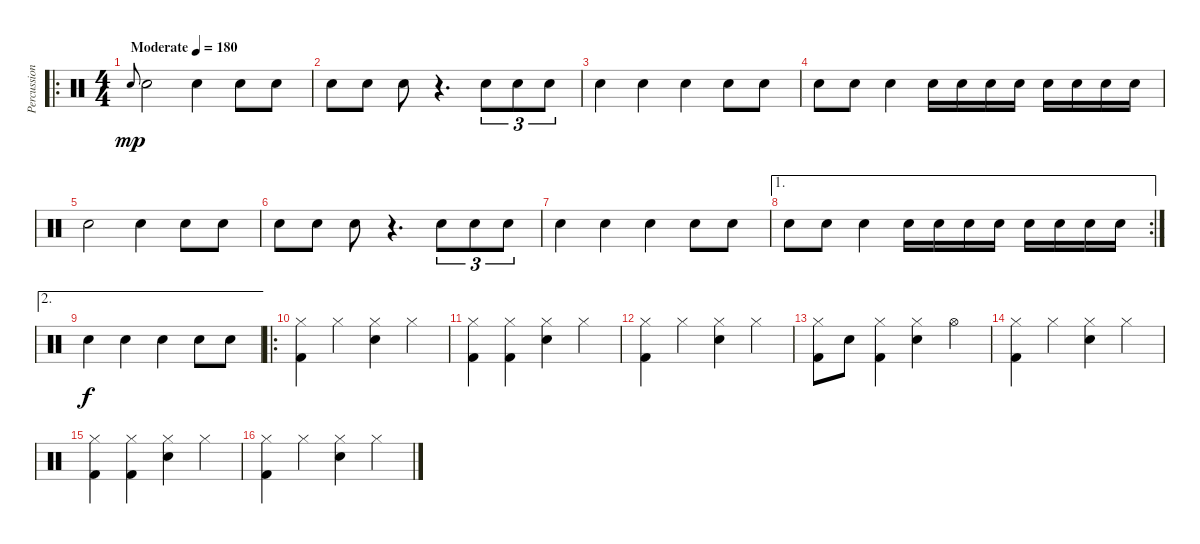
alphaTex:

\track ("Percussion" "Percussion") {instrument percussion}
\staff {score}
\articulation defaults
\ro
\ts (4 4)
\tempo (180 "Moderate")
\clef neutral
\ks c "Snare (hit) 2".8{gr onbeat dy mp} "Snare (hit) 2".2 "Snare (hit) 2".4 "Snare (hit) 2".8 "Snare (hit) 2".8
|
"Snare (hit) 2".8 "Snare (hit) 2".8 "Snare (hit) 2".8 r.4{d} "Snare (hit) 2".8{tu (3 2)} "Snare (hit) 2".8{tu (3 2)} "Snare (hit) 2".8{tu (3 2)} |
"Snare (hit) 2".4 "Snare (hit) 2".4 "Snare (hit) 2".4 "Snare (hit) 2".8 "Snare (hit) 2".8 |
"Snare (hit) 2".8 "Snare (hit) 2".8 "Snare (hit) 2".4 "Snare (hit) 2".16 "Snare (hit) 2".16 "Snare (hit) 2".16 "Snare (hit) 2".16 "Snare (hit) 2".16 "Snare (hit) 2".16 "Snare (hit) 2".16 "Snare (hit) 2".16 |
"Snare (hit) 2".2 "Snare (hit) 2".4 "Snare (hit) 2".8 "Snare (hit) 2".8 |
"Snare (hit) 2".8 "Snare (hit) 2".8 "Snare (hit) 2".8 r.4{d} "Snare (hit) 2".8{tu (3 2)} "Snare (hit) 2".8{tu (3 2)} "Snare (hit) 2".8{tu (3 2)} |
"Snare (hit) 2".4 "Snare (hit) 2".4 "Snare (hit) 2".4 "Snare (hit) 2".8 "Snare (hit) 2".8 |
\ae 1
\rc 2 "Snare (hit) 2".8 "Snare (hit) 2".8 "Snare (hit) 2".4 "Snare (hit) 2".16 "Snare (hit) 2".16 "Snare (hit) 2".16 "Snare (hit) 2".16 "Snare (hit) 2".16 "Snare (hit) 2".16 "Snare (hit) 2".16 "Snare (hit) 2".16
|
\ae 2 "Electric Snare (hit)".4{dy f} "Electric Snare (hit)".4 "Electric Snare (hit)".4 "Snare (hit) 2".8 "Snare (hit) 2".8
|
\ro
("Hi-Hat (closed)" "Kick (hit) 2").4 "Hi-Hat (closed)".4 ("Hi-Hat (closed)" "Snare (hit) 2").4 "Hi-Hat (closed)".4 |
("Hi-Hat (closed)" "Kick (hit) 2").4 ("Hi-Hat (closed)" "Kick (hit) 2").4 ("Hi-Hat (closed)" "Snare (hit) 2").4 "Hi-Hat (closed)".4 |
("Hi-Hat (closed)" "Kick (hit) 2").4 "Hi-Hat (closed)".4 ("Hi-Hat (closed)" "Snare (hit) 2").4 "Hi-Hat (closed)".4 |
("Hi-Hat (closed)" "Kick (hit) 2").8 "Snare (hit) 2".8 ("Hi-Hat (closed)" "Kick (hit) 2").4 ("Hi-Hat (closed)" "Snare (hit) 2").4 "Hi-Hat (open)".4 |
("Hi-Hat (closed)" "Kick (hit) 2").4 "Hi-Hat (closed)".4 ("Hi-Hat (closed)" "Snare (hit) 2").4 "Hi-Hat (closed)".4 |
("Hi-Hat (closed)" "Kick (hit) 2").4 ("Hi-Hat (closed)" "Kick (hit) 2").4 ("Hi-Hat (closed)" "Snare (hit) 2").4 "Hi-Hat (closed)".4 |
("Hi-Hat (closed)" "Kick (hit) 2").4 "Hi-Hat (closed)".4 ("Hi-Hat (closed)" "Snare (hit) 2").4 "Hi-Hat (closed)".4
